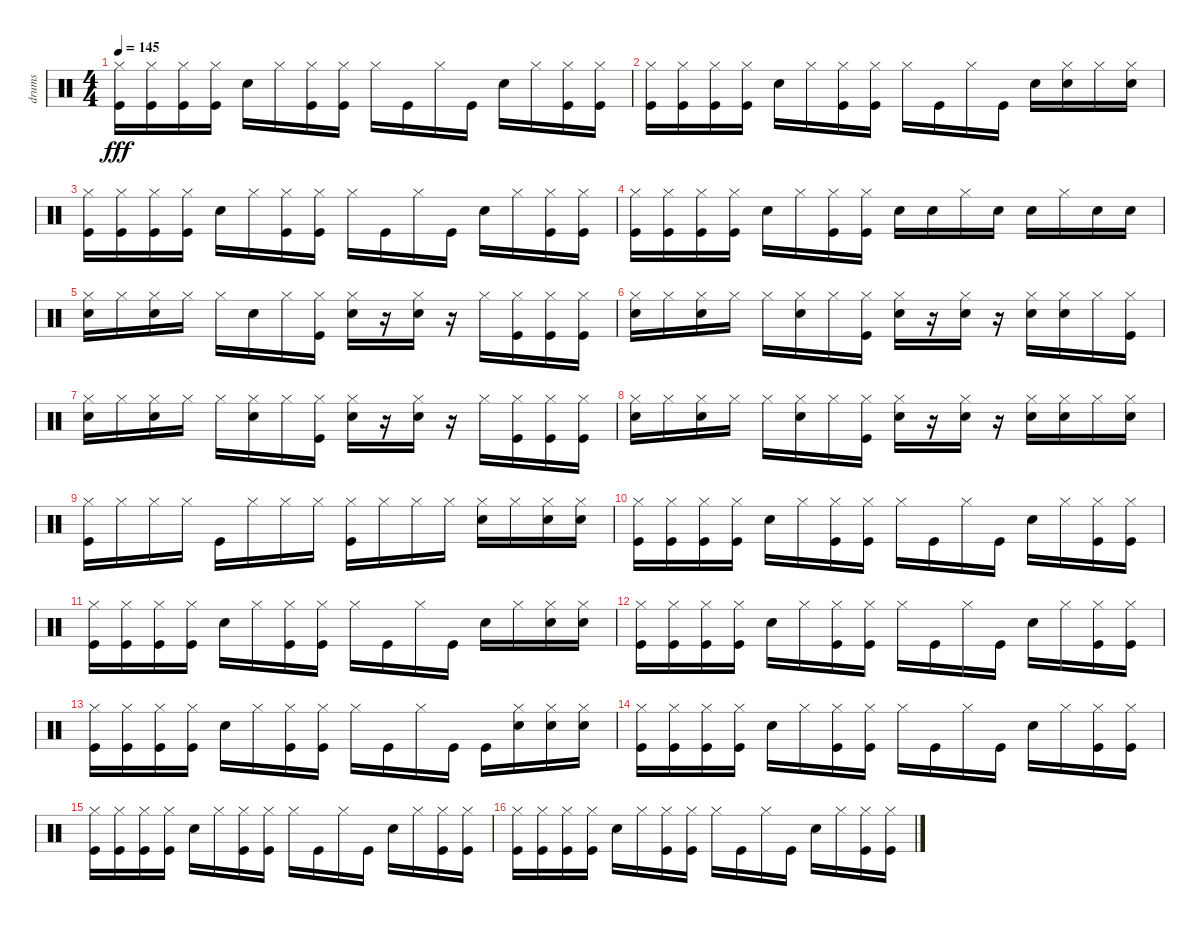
\track ("drums" "drums") {instrument percussion}
\staff {score}
\articulation defaults
\ts (4 4)
\tempo 145
\clef neutral
\ks c
("Kick (hit)" "Hi-Hat (closed)").16{dy fff} ("Kick (hit)" "Hi-Hat (closed)").16 ("Kick (hit)" "Hi-Hat (closed)").16 ("Kick (hit)" "Hi-Hat (closed)").16 "Snare (hit) 2".16 "Hi-Hat (closed)".16 ("Kick (hit)" "Hi-Hat (closed)").16 ("Kick (hit)" "Hi-Hat (closed)").16 "Hi-Hat (closed)".16 "Kick (hit)".16 "Hi-Hat (closed)".16 "Kick (hit)".16 "Snare (hit) 2".16 "Hi-Hat (closed)".16 ("Kick (hit)" "Hi-Hat (closed)").16 ("Kick (hit)" "Hi-Hat (closed)").16 |
("Kick (hit)" "Hi-Hat (closed)").16 ("Kick (hit)" "Hi-Hat (closed)").16 ("Kick (hit)" "Hi-Hat (closed)").16 ("Kick (hit)" "Hi-Hat (closed)").16 "Snare (hit) 2".16 "Hi-Hat (closed)".16 ("Kick (hit)" "Hi-Hat (closed)").16 ("Kick (hit)" "Hi-Hat (closed)").16 "Hi-Hat (closed)".16 "Kick (hit)".16 "Hi-Hat (closed)".16 "Kick (hit)".16 "Snare (hit) 2".16 ("Snare (hit) 2" "Hi-Hat (closed)").16 "Hi-Hat (closed)".16 ("Snare (hit) 2" "Hi-Hat (closed)").16 |
("Kick (hit)" "Hi-Hat (closed)").16 ("Kick (hit)" "Hi-Hat (closed)").16 ("Kick (hit)" "Hi-Hat (closed)").16 ("Kick (hit)" "Hi-Hat (closed)").16 "Snare (hit) 2".16 "Hi-Hat (closed)".16 ("Kick (hit)" "Hi-Hat (closed)").16 ("Kick (hit)" "Hi-Hat (closed)").16 "Hi-Hat (closed)".16 "Kick (hit)".16 "Hi-Hat (closed)".16 "Kick (hit)".16 "Snare (hit) 2".16 "Hi-Hat (closed)".16 ("Kick (hit)" "Hi-Hat (closed)").16 ("Kick (hit)" "Hi-Hat (closed)").16 |
("Kick (hit)" "Hi-Hat (closed)").16 ("Kick (hit)" "Hi-Hat (closed)").16 ("Kick (hit)" "Hi-Hat (closed)").16 ("Kick (hit)" "Hi-Hat (closed)").16 "Snare (hit) 2".16 "Hi-Hat (closed)".16 ("Kick (hit)" "Hi-Hat (closed)").16 ("Kick (hit)" "Hi-Hat (closed)").16 "Snare (hit) 2".16 "Snare (hit) 2".16 "Hi-Hat (closed)".16 "Snare (hit) 2".16 "Snare (hit) 2".16 "Hi-Hat (closed)".16 "Snare (hit) 2".16 "Snare (hit) 2".16 |
("Snare (hit) 2" "Hi-Hat (closed)").16 "Hi-Hat (closed)".16 ("Snare (hit) 2" "Hi-Hat (closed)").16 "Hi-Hat (closed)".16 "Hi-Hat (closed)".16 "Snare (hit) 2".16 "Hi-Hat (closed)".16 ("Kick (hit)" "Hi-Hat (closed)").16 ("Snare (hit) 2" "Hi-Hat (closed)").16 r.16 ("Snare (hit) 2" "Hi-Hat (closed)").16 r.16 "Hi-Hat (closed)".16 ("Kick (hit)" "Hi-Hat (closed)").16 ("Kick (hit)" "Hi-Hat (closed)").16 ("Kick (hit)" "Hi-Hat (closed)").16 |
("Snare (hit) 2" "Hi-Hat (closed)").16 "Hi-Hat (closed)".16 ("Snare (hit) 2" "Hi-Hat (closed)").16 "Hi-Hat (closed)".16 "Hi-Hat (closed)".16 ("Snare (hit) 2" "Hi-Hat (closed)").16 "Hi-Hat (closed)".16 ("Kick (hit)" "Hi-Hat (closed)").16 ("Snare (hit) 2" "Hi-Hat (closed)").16 r.16 ("Snare (hit) 2" "Hi-Hat (closed)").16 r.16 ("Snare (hit) 2" "Hi-Hat (closed)").16 ("Snare (hit) 2" "Hi-Hat (closed)").16 "Hi-Hat (closed)".16 ("Kick (hit)" "Hi-Hat (closed)").16 |
("Snare (hit) 2" "Hi-Hat (closed)").16 "Hi-Hat (closed)".16 ("Snare (hit) 2" "Hi-Hat (closed)").16 "Hi-Hat (closed)".16 "Hi-Hat (closed)".16 ("Snare (hit) 2" "Hi-Hat (closed)").16 "Hi-Hat (closed)".16 ("Kick (hit)" "Hi-Hat (closed)").16 ("Snare (hit) 2" "Hi-Hat (closed)").16 r.16 ("Snare (hit) 2" "Hi-Hat (closed)").16 r.16 "Hi-Hat (closed)".16 ("Kick (hit)" "Hi-Hat (closed)").16 ("Kick (hit)" "Hi-Hat (closed)").16 ("Kick (hit)" "Hi-Hat (closed)").16 |
("Snare (hit) 2" "Hi-Hat (closed)").16 "Hi-Hat (closed)".16 ("Snare (hit) 2" "Hi-Hat (closed)").16 "Hi-Hat (closed)".16 "Hi-Hat (closed)".16 ("Snare (hit) 2" "Hi-Hat (closed)").16 "Hi-Hat (closed)".16 ("Kick (hit)" "Hi-Hat (closed)").16 ("Snare (hit) 2" "Hi-Hat (closed)").16 r.16 ("Snare (hit) 2" "Hi-Hat (closed)").16 r.16 ("Snare (hit) 2" "Hi-Hat (closed)").16 ("Snare (hit) 2" "Hi-Hat (closed)").16 "Hi-Hat (closed)".16 ("Snare (hit) 2" "Hi-Hat (closed)").16 |
("Kick (hit)" "Hi-Hat (closed)").16 "Hi-Hat (closed)".16 "Hi-Hat (closed)".16 "Hi-Hat (closed)".16 "Kick (hit)".16 "Hi-Hat (closed)".16 "Hi-Hat (closed)".16 "Hi-Hat (closed)".16 ("Kick (hit)" "Hi-Hat (closed)").16 "Hi-Hat (closed)".16 "Hi-Hat (closed)".16 "Hi-Hat (closed)".16 ("Snare (hit) 2" "Hi-Hat (closed)").16 "Hi-Hat (closed)".16 ("Snare (hit) 2" "Hi-Hat (closed)").16 ("Snare (hit) 2" "Hi-Hat (closed)").16 |
("Kick (hit)" "Hi-Hat (closed)").16 ("Kick (hit)" "Hi-Hat (closed)").16 ("Kick (hit)" "Hi-Hat (closed)").16 ("Kick (hit)" "Hi-Hat (closed)").16 "Snare (hit) 2".16 "Hi-Hat (closed)".16 ("Kick (hit)" "Hi-Hat (closed)").16 ("Kick (hit)" "Hi-Hat (closed)").16 "Hi-Hat (closed)".16 "Kick (hit)".16 "Hi-Hat (closed)".16 "Kick (hit)".16 "Snare (hit) 2".16 "Hi-Hat (closed)".16 ("Kick (hit)" "Hi-Hat (closed)").16 ("Kick (hit)" "Hi-Hat (closed)").16 |
("Kick (hit)" "Hi-Hat (closed)").16 ("Kick (hit)" "Hi-Hat (closed)").16 ("Kick (hit)" "Hi-Hat (closed)").16 ("Kick (hit)" "Hi-Hat (closed)").16 "Snare (hit) 2".16 "Hi-Hat (closed)".16 ("Kick (hit)" "Hi-Hat (closed)").16 ("Kick (hit)" "Hi-Hat (closed)").16 "Hi-Hat (closed)".16 "Kick (hit)".16 "Hi-Hat (closed)".16 "Kick (hit)".16 "Snare (hit) 2".16 "Hi-Hat (closed)".16 ("Snare (hit) 2" "Hi-Hat (closed)").16 ("Snare (hit) 2" "Hi-Hat (closed)").16 |
("Kick (hit)" "Hi-Hat (closed)").16 ("Kick (hit)" "Hi-Hat (closed)").16 ("Kick (hit)" "Hi-Hat (closed)").16 ("Kick (hit)" "Hi-Hat (closed)").16 "Snare (hit) 2".16 "Hi-Hat (closed)".16 ("Kick (hit)" "Hi-Hat (closed)").16 ("Kick (hit)" "Hi-Hat (closed)").16 "Hi-Hat (closed)".16 "Kick (hit)".16 "Hi-Hat (closed)".16 "Kick (hit)".16 "Snare (hit) 2".16 "Hi-Hat (closed)".16 ("Kick (hit)" "Hi-Hat (closed)").16 ("Kick (hit)" "Hi-Hat (closed)").16 |
("Kick (hit)" "Hi-Hat (closed)").16 ("Kick (hit)" "Hi-Hat (closed)").16 ("Kick (hit)" "Hi-Hat (closed)").16 ("Kick (hit)" "Hi-Hat (closed)").16 "Snare (hit) 2".16 "Hi-Hat (closed)".16 ("Kick (hit)" "Hi-Hat (closed)").16 ("Kick (hit)" "Hi-Hat (closed)").16 "Hi-Hat (closed)".16 "Kick (hit)".16 "Hi-Hat (closed)".16 "Kick (hit)".16 "Kick (hit)".16 ("Snare (hit) 2" "Hi-Hat (closed)").16 ("Snare (hit) 2" "Hi-Hat (closed)").16 ("Snare (hit) 2" "Hi-Hat (closed)").16 |
("Kick (hit)" "Hi-Hat (closed)").16 ("Kick (hit)" "Hi-Hat (closed)").16 ("Kick (hit)" "Hi-Hat (closed)").16 ("Kick (hit)" "Hi-Hat (closed)").16 "Snare (hit) 2".16 "Hi-Hat (closed)".16 ("Kick (hit)" "Hi-Hat (closed)").16 ("Kick (hit)" "Hi-Hat (closed)").16 "Hi-Hat (closed)".16 "Kick (hit)".16 "Hi-Hat (closed)".16 "Kick (hit)".16 "Snare (hit) 2".16 "Hi-Hat (closed)".16 ("Kick (hit)" "Hi-Hat (closed)").16 ("Kick (hit)" "Hi-Hat (closed)").16 |
("Kick (hit)" "Hi-Hat (closed)").16 ("Kick (hit)" "Hi-Hat (closed)").16 ("Kick (hit)" "Hi-Hat (closed)").16 ("Kick (hit)" "Hi-Hat (closed)").16 "Snare (hit) 2".16 "Hi-Hat (closed)".16 ("Kick (hit)" "Hi-Hat (closed)").16 ("Kick (hit)" "Hi-Hat (closed)").16 "Hi-Hat (closed)".16 "Kick (hit)".16 "Hi-Hat (closed)".16 "Kick (hit)".16 "Snare (hit) 2".16 "Hi-Hat (closed)".16 ("Kick (hit)" "Hi-Hat (closed)").16 ("Kick (hit)" "Hi-Hat (closed)").16 |
("Kick (hit)" "Hi-Hat (closed)").16 ("Kick (hit)" "Hi-Hat (closed)").16 ("Kick (hit)" "Hi-Hat (closed)").16 ("Kick (hit)" "Hi-Hat (closed)").16 "Snare (hit) 2".16 "Hi-Hat (closed)".16 ("Kick (hit)" "Hi-Hat (closed)").16 ("Kick (hit)" "Hi-Hat (closed)").16 "Hi-Hat (closed)".16 "Kick (hit)".16 "Hi-Hat (closed)".16 "Kick (hit)".16 "Snare (hit) 2".16 "Hi-Hat (closed)".16 ("Kick (hit)" "Hi-Hat (closed)").16 ("Kick (hit)" "Hi-Hat (closed)").16
